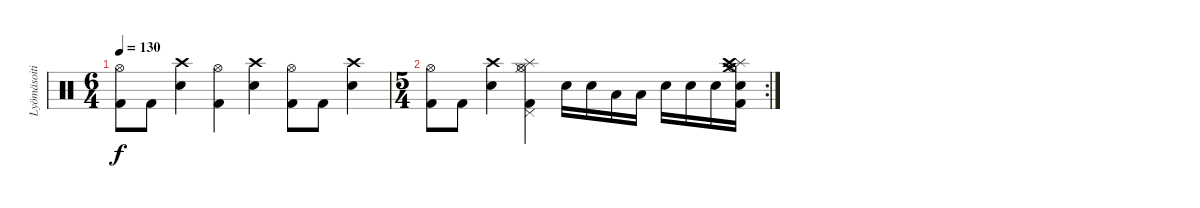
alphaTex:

\track ("Lyömäsoitin" "Lyömäsoiti") {instrument percussion}
\staff {score}
\articulation defaults
\ts (6 4)
\tempo 130
\clef neutral
\ks c
("Hi-Hat (open)" "Kick (hit) 2").8{dy f} "Kick (hit) 2".8 ("Crash high (hit)" "Snare (hit) 2").4 ("Hi-Hat (open)" "Kick (hit) 2").4 ("Crash high (hit)" "Snare (hit) 2").4 ("Hi-Hat (open)" "Kick (hit) 2").8 "Kick (hit) 2".8 ("Crash high (hit)" "Snare (hit) 2").4 |
\rc 2
\ts (5 4)
("Hi-Hat (open)" "Kick (hit) 2").8 "Kick (hit) 2".8 ("Crash high (hit)" "Snare (hit) 2").4 ("Hi-Hat (closed)" "Pedal Hi-Hat (hit)" "Splash (hit)" "Hi-Hat (open)" "Kick (hit) 2").4 "Snare (hit) 2".16 "Snare (hit) 2".16 "Low Tom (hit)".16 "Low Tom (hit)".16 "Snare (hit) 2".16 "Snare (hit) 2".16 "Snare (hit) 2".16 ("Splash (hit)" "Crash high (hit)" "Crash medium (hit)" "Hi-Hat (open)" "Kick (hit) 2" "Snare (hit) 2").16
